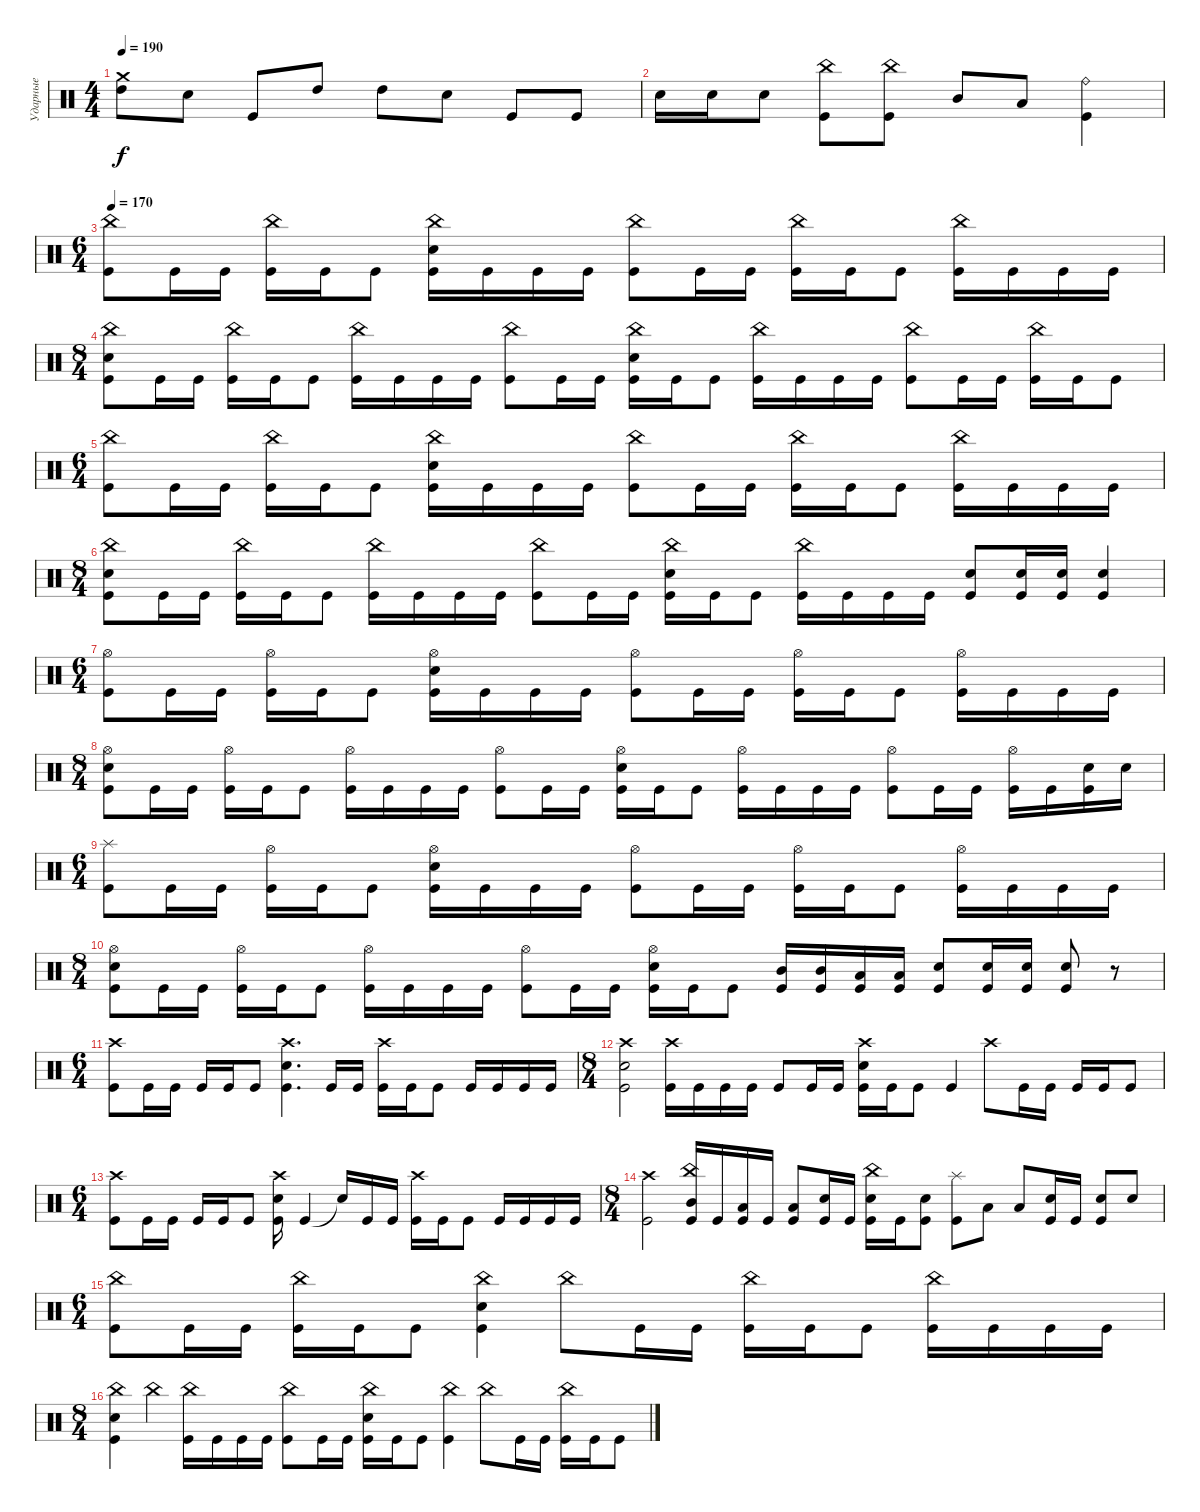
\track ("Ударные" "Ударные") {instrument percussion}
\staff {score}
\articulation defaults
\ts (4 4)
\tempo 190
\clef neutral
\ks c
("Crash medium (hit)" "High Tom (hit)").8{dy f} "Snare (hit) 2".8 "Kick (hit)".8 "High Tom (hit)".8 "High Tom (hit)".8 "Snare (hit) 2".8 "Kick (hit)".8 "Kick (hit)".8 |
"Snare (hit) 2".16 "Snare (hit) 2".16 "Snare (hit) 2".8 ("China (hit)" "Kick (hit)").8 ("China (hit)" "Kick (hit)").8 "Mid Tom (hit)".8 "Low Tom (hit)".8 ("Ride (bell)" "Kick (hit)").4 |
\ts (6 4)
\tempo 170
("China (hit)" "Kick (hit)").8 "Kick (hit)".16 "Kick (hit)".16 ("China (hit)" "Kick (hit)").16 "Kick (hit)".16 "Kick (hit)".8 ("China (hit)" "Snare (hit) 2" "Kick (hit)").16 "Kick (hit)".16 "Kick (hit)".16 "Kick (hit)".16 ("China (hit)" "Kick (hit)").8 "Kick (hit)".16 "Kick (hit)".16 ("China (hit)" "Kick (hit)").16 "Kick (hit)".16 "Kick (hit)".8 ("China (hit)" "Kick (hit)").16 "Kick (hit)".16 "Kick (hit)".16 "Kick (hit)".16 |
\ts (8 4)
("China (hit)" "Snare (hit) 2" "Kick (hit)").8 "Kick (hit)".16 "Kick (hit)".16 ("China (hit)" "Kick (hit)").16 "Kick (hit)".16 "Kick (hit)".8 ("China (hit)" "Kick (hit)").16 "Kick (hit)".16 "Kick (hit)".16 "Kick (hit)".16 ("China (hit)" "Kick (hit)").8 "Kick (hit)".16 "Kick (hit)".16 ("China (hit)" "Snare (hit) 2" "Kick (hit)").16 "Kick (hit)".16 "Kick (hit)".8 ("China (hit)" "Kick (hit)").16 "Kick (hit)".16 "Kick (hit)".16 "Kick (hit)".16 ("China (hit)" "Kick (hit)").8 "Kick (hit)".16 "Kick (hit)".16 ("China (hit)" "Kick (hit)").16 "Kick (hit)".16 "Kick (hit)".8 |
\ts (6 4)
("China (hit)" "Kick (hit)").8 "Kick (hit)".16 "Kick (hit)".16 ("China (hit)" "Kick (hit)").16 "Kick (hit)".16 "Kick (hit)".8 ("China (hit)" "Snare (hit) 2" "Kick (hit)").16 "Kick (hit)".16 "Kick (hit)".16 "Kick (hit)".16 ("China (hit)" "Kick (hit)").8 "Kick (hit)".16 "Kick (hit)".16 ("China (hit)" "Kick (hit)").16 "Kick (hit)".16 "Kick (hit)".8 ("China (hit)" "Kick (hit)").16 "Kick (hit)".16 "Kick (hit)".16 "Kick (hit)".16 |
\ts (8 4)
("China (hit)" "Snare (hit) 2" "Kick (hit)").8 "Kick (hit)".16 "Kick (hit)".16 ("China (hit)" "Kick (hit)").16 "Kick (hit)".16 "Kick (hit)".8 ("China (hit)" "Kick (hit)").16 "Kick (hit)".16 "Kick (hit)".16 "Kick (hit)".16 ("China (hit)" "Kick (hit)").8 "Kick (hit)".16 "Kick (hit)".16 ("China (hit)" "Snare (hit) 2" "Kick (hit)").16 "Kick (hit)".16 "Kick (hit)".8 ("China (hit)" "Kick (hit)").16 "Kick (hit)".16 "Kick (hit)".16 "Kick (hit)".16 ("Snare (hit) 2" "Kick (hit)").8 ("Snare (hit) 2" "Kick (hit)").16 ("Snare (hit) 2" "Kick (hit)").16 ("Snare (hit) 2" "Kick (hit)").4 |
\ts (6 4)
("Hi-Hat (open)" "Kick (hit)").8 "Kick (hit)".16 "Kick (hit)".16 ("Hi-Hat (open)" "Kick (hit)").16 "Kick (hit)".16 "Kick (hit)".8 ("Hi-Hat (open)" "Snare (hit) 2" "Kick (hit)").16 "Kick (hit)".16 "Kick (hit)".16 "Kick (hit)".16 ("Hi-Hat (open)" "Kick (hit)").8 "Kick (hit)".16 "Kick (hit)".16 ("Hi-Hat (open)" "Kick (hit)").16 "Kick (hit)".16 "Kick (hit)".8 ("Hi-Hat (open)" "Kick (hit)").16 "Kick (hit)".16 "Kick (hit)".16 "Kick (hit)".16 |
\ts (8 4)
("Hi-Hat (open)" "Snare (hit) 2" "Kick (hit)").8 "Kick (hit)".16 "Kick (hit)".16 ("Hi-Hat (open)" "Kick (hit)").16 "Kick (hit)".16 "Kick (hit)".8 ("Hi-Hat (open)" "Kick (hit)").16 "Kick (hit)".16 "Kick (hit)".16 "Kick (hit)".16 ("Hi-Hat (open)" "Kick (hit)").8 "Kick (hit)".16 "Kick (hit)".16 ("Hi-Hat (open)" "Snare (hit) 2" "Kick (hit)").16 "Kick (hit)".16 "Kick (hit)".8 ("Hi-Hat (open)" "Kick (hit)").16 "Kick (hit)".16 "Kick (hit)".16 "Kick (hit)".16 ("Hi-Hat (open)" "Kick (hit)").8 "Kick (hit)".16 "Kick (hit)".16 ("Hi-Hat (open)" "Kick (hit)").16 "Kick (hit)".16 ("Snare (hit) 2" "Kick (hit)").16 "Snare (hit) 2".16 |
\ts (6 4)
("Splash (hit)" "Kick (hit)").8 "Kick (hit)".16 "Kick (hit)".16 ("Hi-Hat (open)" "Kick (hit)").16 "Kick (hit)".16 "Kick (hit)".8 ("Hi-Hat (open)" "Snare (hit) 2" "Kick (hit)").16 "Kick (hit)".16 "Kick (hit)".16 "Kick (hit)".16 ("Hi-Hat (open)" "Kick (hit)").8 "Kick (hit)".16 "Kick (hit)".16 ("Hi-Hat (open)" "Kick (hit)").16 "Kick (hit)".16 "Kick (hit)".8 ("Hi-Hat (open)" "Kick (hit)").16 "Kick (hit)".16 "Kick (hit)".16 "Kick (hit)".16 |
\ts (8 4)
("Hi-Hat (open)" "Snare (hit) 2" "Kick (hit)").8 "Kick (hit)".16 "Kick (hit)".16 ("Hi-Hat (open)" "Kick (hit)").16 "Kick (hit)".16 "Kick (hit)".8 ("Hi-Hat (open)" "Kick (hit)").16 "Kick (hit)".16 "Kick (hit)".16 "Kick (hit)".16 ("Hi-Hat (open)" "Kick (hit)").8 "Kick (hit)".16 "Kick (hit)".16 ("Hi-Hat (open)" "Snare (hit) 2" "Kick (hit)").16 "Kick (hit)".16 "Kick (hit)".8 ("Mid Tom (hit)" "Kick (hit)").16 ("Mid Tom (hit)" "Kick (hit)").16 ("Low Tom (hit)" "Kick (hit)").16 ("Low Tom (hit)" "Kick (hit)").16 ("Snare (hit) 2" "Kick (hit)").8 ("Snare (hit) 2" "Kick (hit)").16 ("Snare (hit) 2" "Kick (hit)").16 ("Snare (hit) 2" "Kick (hit)").8 r.8 |
\ts (6 4)
("Crash high (hit)" "Kick (hit)").8 "Kick (hit)".16 "Kick (hit)".16 "Kick (hit)".16 "Kick (hit)".16 "Kick (hit)".8 ("Crash high (hit)" "Snare (hit) 2" "Kick (hit)").4{d} "Kick (hit)".16 "Kick (hit)".16 ("Crash high (hit)" "Kick (hit)").16 "Kick (hit)".16 "Kick (hit)".8 "Kick (hit)".16 "Kick (hit)".16 "Kick (hit)".16 "Kick (hit)".16 |
\ts (8 4)
("Crash high (hit)" "Snare (hit) 2" "Kick (hit)").2 ("Crash high (hit)" "Kick (hit)").16 "Kick (hit)".16 "Kick (hit)".16 "Kick (hit)".16 "Kick (hit)".8 "Kick (hit)".16 "Kick (hit)".16 ("Crash high (hit)" "Snare (hit) 2" "Kick (hit)").16 "Kick (hit)".16 "Kick (hit)".8 "Kick (hit)".4 "Crash high (hit)".8 "Kick (hit)".16 "Kick (hit)".16 "Kick (hit)".16 "Kick (hit)".16 "Kick (hit)".8 |
\ts (6 4)
("Crash high (hit)" "Kick (hit)").8 "Kick (hit)".16 "Kick (hit)".16 "Kick (hit)".16 "Kick (hit)".16 "Kick (hit)".8 ("Crash high (hit)" "Snare (hit) 2" "Kick (hit)").16 "Kick (hit)".4 "Snare (hit)"{t}.16 "Kick (hit)".16 "Kick (hit)".16 ("Crash high (hit)" "Kick (hit)").16 "Kick (hit)".16 "Kick (hit)".8 "Kick (hit)".16 "Kick (hit)".16 "Kick (hit)".16 "Kick (hit)".16 |
\ts (8 4)
("Crash high (hit)" "Kick (hit)").2 ("China (hit)" "Mid Tom (hit)" "Kick (hit)").16 "Kick (hit)".16 ("Low Tom (hit)" "Kick (hit)").16 "Kick (hit)".16 ("Low Tom (hit)" "Kick (hit)").8 ("Snare (hit) 2" "Kick (hit)").16 "Kick (hit)".16 ("China (hit)" "Snare (hit) 2" "Kick (hit)").16 "Kick (hit)".16 ("Snare (hit) 2" "Kick (hit)").8 ("Splash (hit)" "Kick (hit)").8 "Low Tom (hit)".8 "Low Tom (hit)".8 ("Snare (hit) 2" "Kick (hit)").16 "Kick (hit)".16 ("Snare (hit) 2" "Kick (hit)").8 "Snare (hit) 2".8 |
\ts (6 4)
("China (hit)" "Kick (hit)").8 "Kick (hit)".16 "Kick (hit)".16 ("China (hit)" "Kick (hit)").16 "Kick (hit)".16 "Kick (hit)".8 ("China (hit)" "Snare (hit) 2" "Kick (hit)").4 "China (hit)".8 "Kick (hit)".16 "Kick (hit)".16 ("China (hit)" "Kick (hit)").16 "Kick (hit)".16 "Kick (hit)".8 ("China (hit)" "Kick (hit)").16 "Kick (hit)".16 "Kick (hit)".16 "Kick (hit)".16 |
\ts (8 4)
("China (hit)" "Snare (hit) 2" "Kick (hit)").4 "China (hit)".4 ("China (hit)" "Kick (hit)").16 "Kick (hit)".16 "Kick (hit)".16 "Kick (hit)".16 ("China (hit)" "Kick (hit)").8 "Kick (hit)".16 "Kick (hit)".16 ("China (hit)" "Snare (hit) 2" "Kick (hit)").16 "Kick (hit)".16 "Kick (hit)".8 ("China (hit)" "Kick (hit)").4 "China (hit)".8 "Kick (hit)".16 "Kick (hit)".16 ("China (hit)" "Kick (hit)").16 "Kick (hit)".16 "Kick (hit)".8
